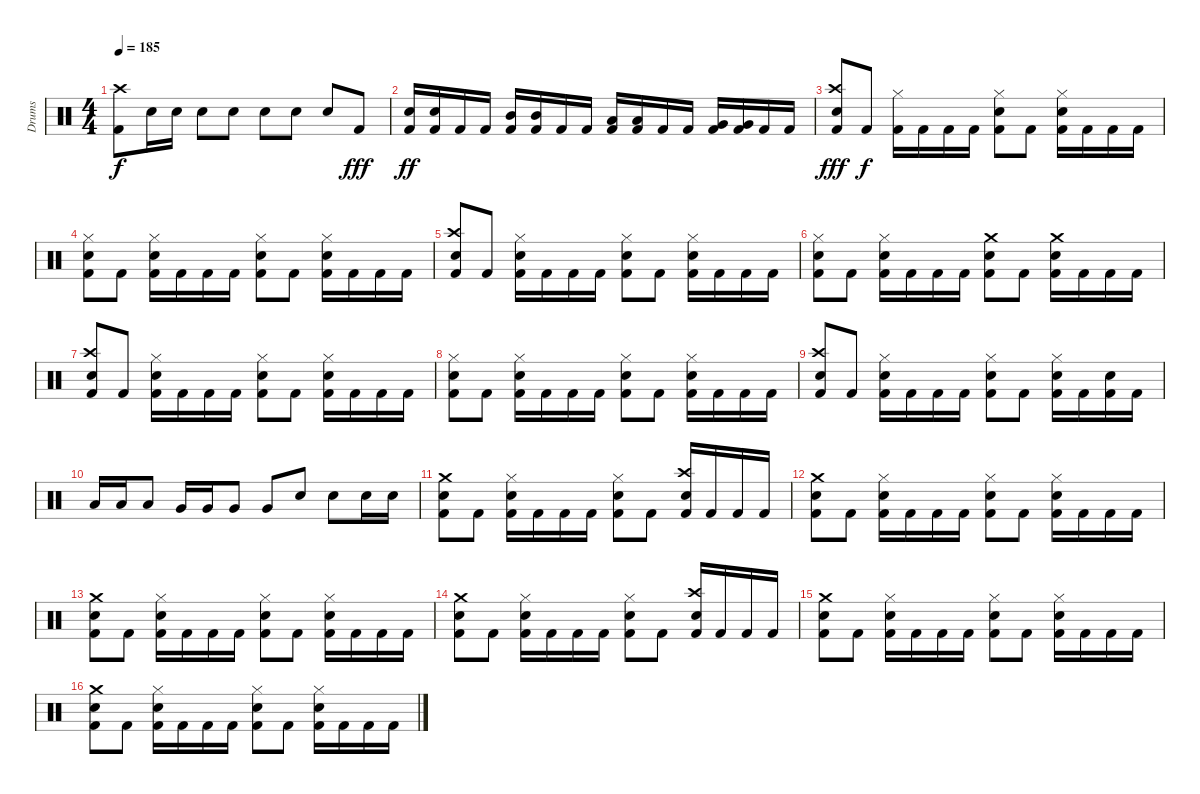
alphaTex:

\track ("Drums" "Drums") {instrument percussion}
\staff {score}
\articulation defaults
\ts (4 4)
\tempo 185
\clef neutral
\ks c
("Kick (hit) 2" "Crash high (hit)").8{dy f} "Snare (hit) 2".16 "Snare (hit) 2".16 "Snare (hit) 2".8 "Snare (hit) 2".8 "Snare (hit) 2".8 "Snare (hit) 2".8 "Snare (hit) 2".8 "Kick (hit) 2".8{dy fff} |
("Kick (hit) 2" "Snare (hit) 2").16{dy ff} ("Kick (hit) 2" "Snare (hit) 2").16 "Kick (hit) 2".16 "Kick (hit) 2".16 ("Kick (hit) 2" "Mid Tom (hit)").16 ("Kick (hit) 2" "Mid Tom (hit)").16 "Kick (hit) 2".16 "Kick (hit) 2".16 ("Kick (hit) 2" "Low Tom (hit)").16 ("Kick (hit) 2" "Low Tom (hit)").16 "Kick (hit) 2".16 "Kick (hit) 2".16 ("Kick (hit) 2" "Very Low Tom (hit)").16 ("Kick (hit) 2" "Very Low Tom (hit)").16 "Kick (hit) 2".16 "Kick (hit) 2".16 |
("Kick (hit) 2" "Snare (hit) 2" "Crash high (hit)").8{dy fff} "Kick (hit) 2".8{dy f} ("Kick (hit) 2" "Hi-Hat (closed)").16 "Kick (hit) 2".16 "Kick (hit) 2".16 "Kick (hit) 2".16 ("Kick (hit) 2" "Snare (hit) 2" "Hi-Hat (closed)").8 "Kick (hit) 2".8 ("Kick (hit) 2" "Snare (hit) 2" "Hi-Hat (closed)").16 "Kick (hit) 2".16 "Kick (hit) 2".16 "Kick (hit) 2".16 |
("Kick (hit) 2" "Snare (hit) 2" "Hi-Hat (closed)").8 "Kick (hit) 2".8 ("Kick (hit) 2" "Snare (hit) 2" "Hi-Hat (closed)").16 "Kick (hit) 2".16 "Kick (hit) 2".16 "Kick (hit) 2".16 ("Kick (hit) 2" "Snare (hit) 2" "Hi-Hat (closed)").8 "Kick (hit) 2".8 ("Kick (hit) 2" "Snare (hit) 2" "Hi-Hat (closed)").16 "Kick (hit) 2".16 "Kick (hit) 2".16 "Kick (hit) 2".16 |
("Kick (hit) 2" "Snare (hit) 2" "Crash high (hit)").8 "Kick (hit) 2".8 ("Kick (hit) 2" "Snare (hit) 2" "Hi-Hat (closed)").16 "Kick (hit) 2".16 "Kick (hit) 2".16 "Kick (hit) 2".16 ("Kick (hit) 2" "Snare (hit) 2" "Hi-Hat (closed)").8 "Kick (hit) 2".8 ("Kick (hit) 2" "Snare (hit) 2" "Hi-Hat (closed)").16 "Kick (hit) 2".16 "Kick (hit) 2".16 "Kick (hit) 2".16 |
("Kick (hit) 2" "Snare (hit) 2" "Hi-Hat (closed)").8 "Kick (hit) 2".8 ("Kick (hit) 2" "Snare (hit) 2" "Hi-Hat (closed)").16 "Kick (hit) 2".16 "Kick (hit) 2".16 "Kick (hit) 2".16 ("Kick (hit) 2" "Snare (hit) 2" "Crash medium (hit)").8 "Kick (hit) 2".8 ("Kick (hit) 2" "Snare (hit) 2" "Crash medium (hit)").16 "Kick (hit) 2".16 "Kick (hit) 2".16 "Kick (hit) 2".16 |
("Kick (hit) 2" "Snare (hit) 2" "Crash high (hit)").8 "Kick (hit) 2".8 ("Kick (hit) 2" "Snare (hit) 2" "Hi-Hat (closed)").16 "Kick (hit) 2".16 "Kick (hit) 2".16 "Kick (hit) 2".16 ("Kick (hit) 2" "Snare (hit) 2" "Hi-Hat (closed)").8 "Kick (hit) 2".8 ("Kick (hit) 2" "Snare (hit) 2" "Hi-Hat (closed)").16 "Kick (hit) 2".16 "Kick (hit) 2".16 "Kick (hit) 2".16 |
("Kick (hit) 2" "Snare (hit) 2" "Hi-Hat (closed)").8 "Kick (hit) 2".8 ("Kick (hit) 2" "Snare (hit) 2" "Hi-Hat (closed)").16 "Kick (hit) 2".16 "Kick (hit) 2".16 "Kick (hit) 2".16 ("Kick (hit) 2" "Snare (hit) 2" "Hi-Hat (closed)").8 "Kick (hit) 2".8 ("Kick (hit) 2" "Snare (hit) 2" "Hi-Hat (closed)").16 "Kick (hit) 2".16 "Kick (hit) 2".16 "Kick (hit) 2".16 |
("Kick (hit) 2" "Snare (hit) 2" "Crash high (hit)").8 "Kick (hit) 2".8 ("Kick (hit) 2" "Snare (hit) 2" "Hi-Hat (closed)").16 "Kick (hit) 2".16 "Kick (hit) 2".16 "Kick (hit) 2".16 ("Kick (hit) 2" "Snare (hit) 2" "Hi-Hat (closed)").8 "Kick (hit) 2".8 ("Kick (hit) 2" "Snare (hit) 2" "Hi-Hat (closed)").16 "Kick (hit) 2".16 ("Kick (hit) 2" "Snare (hit) 2").16 "Kick (hit) 2".16 |
"Low Tom (hit)".16 "Low Tom (hit)".16 "Low Tom (hit)".8 "Very Low Tom (hit)".16 "Very Low Tom (hit)".16 "Very Low Tom (hit)".8 "Very Low Tom (hit)".8 "Snare (hit) 2".8 "Snare (hit) 2".8 "Snare (hit) 2".16 "Snare (hit) 2".16 |
("Kick (hit) 2" "Snare (hit) 2" "Crash medium (hit)").8 "Kick (hit) 2".8 ("Kick (hit) 2" "Snare (hit) 2" "Hi-Hat (closed)").16 "Kick (hit) 2".16 "Kick (hit) 2".16 "Kick (hit) 2".16 ("Kick (hit) 2" "Snare (hit) 2" "Hi-Hat (closed)").8 "Kick (hit) 2".8 ("Kick (hit) 2" "Snare (hit) 2" "Crash high (hit)").16 "Kick (hit) 2".16 "Kick (hit) 2".16 "Kick (hit) 2".16 |
("Kick (hit) 2" "Snare (hit) 2" "Crash medium (hit)").8 "Kick (hit) 2".8 ("Kick (hit) 2" "Snare (hit) 2" "Hi-Hat (closed)").16 "Kick (hit) 2".16 "Kick (hit) 2".16 "Kick (hit) 2".16 ("Kick (hit) 2" "Snare (hit) 2" "Hi-Hat (closed)").8 "Kick (hit) 2".8 ("Kick (hit) 2" "Snare (hit) 2" "Hi-Hat (closed)").16 "Kick (hit) 2".16 "Kick (hit) 2".16 "Kick (hit) 2".16 |
("Kick (hit) 2" "Snare (hit) 2" "Crash medium (hit)").8 "Kick (hit) 2".8 ("Kick (hit) 2" "Snare (hit) 2" "Hi-Hat (closed)").16 "Kick (hit) 2".16 "Kick (hit) 2".16 "Kick (hit) 2".16 ("Kick (hit) 2" "Snare (hit) 2" "Hi-Hat (closed)").8 "Kick (hit) 2".8 ("Kick (hit) 2" "Snare (hit) 2" "Hi-Hat (closed)").16 "Kick (hit) 2".16 "Kick (hit) 2".16 "Kick (hit) 2".16 |
("Kick (hit) 2" "Snare (hit) 2" "Crash medium (hit)").8 "Kick (hit) 2".8 ("Kick (hit) 2" "Snare (hit) 2" "Hi-Hat (closed)").16 "Kick (hit) 2".16 "Kick (hit) 2".16 "Kick (hit) 2".16 ("Kick (hit) 2" "Snare (hit) 2" "Hi-Hat (closed)").8 "Kick (hit) 2".8 ("Kick (hit) 2" "Snare (hit) 2" "Crash high (hit)").16 "Kick (hit) 2".16 "Kick (hit) 2".16 "Kick (hit) 2".16 |
("Kick (hit) 2" "Snare (hit) 2" "Crash medium (hit)").8 "Kick (hit) 2".8 ("Kick (hit) 2" "Snare (hit) 2" "Hi-Hat (closed)").16 "Kick (hit) 2".16 "Kick (hit) 2".16 "Kick (hit) 2".16 ("Kick (hit) 2" "Snare (hit) 2" "Hi-Hat (closed)").8 "Kick (hit) 2".8 ("Kick (hit) 2" "Snare (hit) 2" "Hi-Hat (closed)").16 "Kick (hit) 2".16 "Kick (hit) 2".16 "Kick (hit) 2".16 |
("Kick (hit) 2" "Snare (hit) 2" "Crash medium (hit)").8 "Kick (hit) 2".8 ("Kick (hit) 2" "Snare (hit) 2" "Hi-Hat (closed)").16 "Kick (hit) 2".16 "Kick (hit) 2".16 "Kick (hit) 2".16 ("Kick (hit) 2" "Snare (hit) 2" "Hi-Hat (closed)").8 "Kick (hit) 2".8 ("Kick (hit) 2" "Snare (hit) 2" "Hi-Hat (closed)").16 "Kick (hit) 2".16 "Kick (hit) 2".16 "Kick (hit) 2".16
